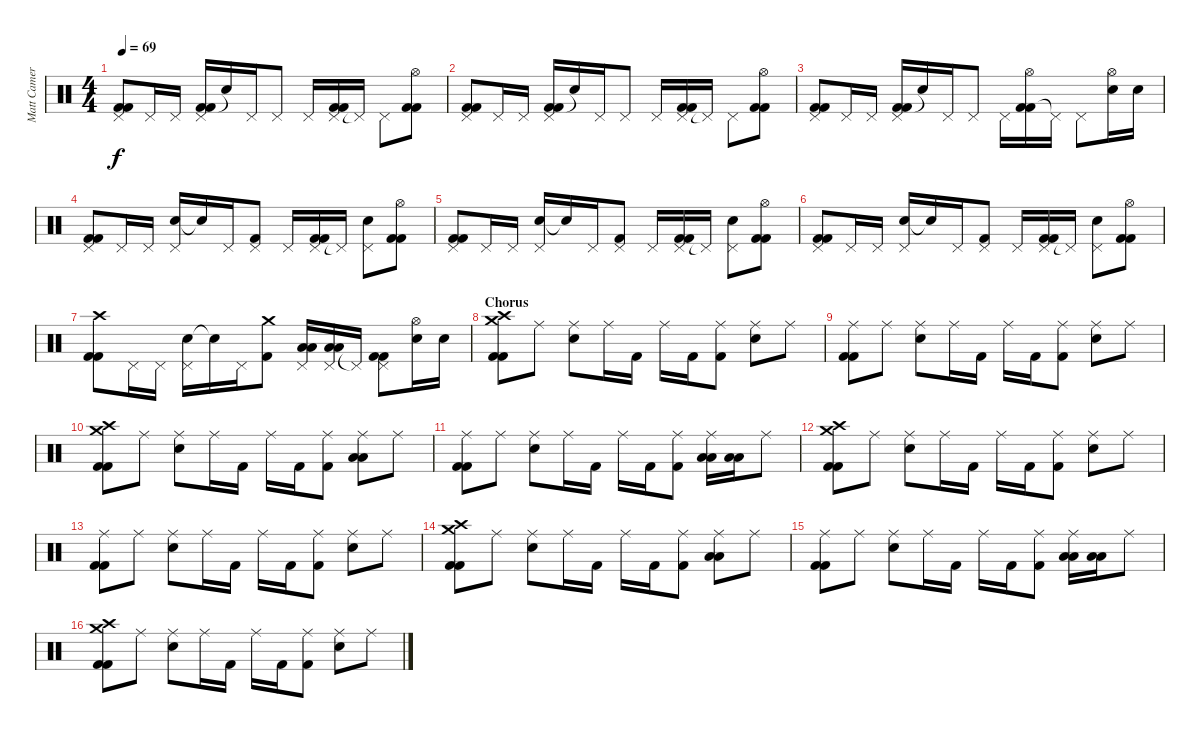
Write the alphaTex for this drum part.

\track ("Matt Cameron" "Matt Camer") {instrument percussion}
\staff {score}
\articulation defaults
\ts (4 4)
\tempo 69
\clef neutral
\ks c
("Kick (hit) 2" "Kick (hit) 2" "Pedal Hi-Hat (hit)").8{dy f} "Pedal Hi-Hat (hit)".16 "Pedal Hi-Hat (hit)".16 ("Kick (hit) 2" "Kick (hit) 2" "Pedal Hi-Hat (hit)").16 "Snare (hit)"{t}.16 "Pedal Hi-Hat (hit)".16 "Pedal Hi-Hat (hit)".8 "Pedal Hi-Hat (hit)".16 ("Kick (hit) 2" "Kick (hit) 2" "Pedal Hi-Hat (hit)").16 "Pedal Hi-Hat (hit)"{t}.16 "Pedal Hi-Hat (hit)".8 ("Kick (hit) 2" "Kick (hit) 2" "Hi-Hat (open)").8 |
("Kick (hit) 2" "Kick (hit) 2" "Pedal Hi-Hat (hit)").8 "Pedal Hi-Hat (hit)".16 "Pedal Hi-Hat (hit)".16 ("Kick (hit) 2" "Kick (hit) 2" "Pedal Hi-Hat (hit)").16 "Snare (hit)"{t}.16 "Pedal Hi-Hat (hit)".16 "Pedal Hi-Hat (hit)".8 "Pedal Hi-Hat (hit)".16 ("Kick (hit) 2" "Kick (hit) 2" "Pedal Hi-Hat (hit)").16 "Pedal Hi-Hat (hit)"{t}.16 "Pedal Hi-Hat (hit)".8 ("Kick (hit) 2" "Kick (hit) 2" "Hi-Hat (open)").8 |
("Kick (hit) 2" "Kick (hit) 2" "Pedal Hi-Hat (hit)").8 "Pedal Hi-Hat (hit)".16 "Pedal Hi-Hat (hit)".16 ("Kick (hit) 2" "Kick (hit) 2" "Pedal Hi-Hat (hit)").16 "Snare (hit)"{t}.16 "Pedal Hi-Hat (hit)".16 "Pedal Hi-Hat (hit)".8 "Pedal Hi-Hat (hit)".16 ("Kick (hit) 2" "Kick (hit) 2" "Hi-Hat (open)").16 "Pedal Hi-Hat (hit)"{t}.16 "Pedal Hi-Hat (hit)".8 ("Electric Snare (hit)" "Hi-Hat (open)").16 "Electric Snare (hit)".16 |
("Kick (hit) 2" "Kick (hit) 2" "Pedal Hi-Hat (hit)").8 "Pedal Hi-Hat (hit)".16 "Pedal Hi-Hat (hit)".16 ("Electric Snare (hit)" "Pedal Hi-Hat (hit)").16 "Snare (hit)"{t}.16 "Pedal Hi-Hat (hit)".16 ("Kick (hit) 2" "Pedal Hi-Hat (hit)").8 "Pedal Hi-Hat (hit)".16 ("Kick (hit) 2" "Kick (hit) 2" "Pedal Hi-Hat (hit)").16 "Pedal Hi-Hat (hit)"{t}.16 ("Electric Snare (hit)" "Pedal Hi-Hat (hit)").8 ("Kick (hit) 2" "Kick (hit) 2" "Hi-Hat (open)").8 |
("Kick (hit) 2" "Kick (hit) 2" "Pedal Hi-Hat (hit)").8 "Pedal Hi-Hat (hit)".16 "Pedal Hi-Hat (hit)".16 ("Electric Snare (hit)" "Pedal Hi-Hat (hit)").16 "Snare (hit)"{t}.16 "Pedal Hi-Hat (hit)".16 ("Kick (hit) 2" "Pedal Hi-Hat (hit)").8 "Pedal Hi-Hat (hit)".16 ("Kick (hit) 2" "Kick (hit) 2" "Pedal Hi-Hat (hit)").16 "Pedal Hi-Hat (hit)"{t}.16 ("Electric Snare (hit)" "Pedal Hi-Hat (hit)").8 ("Kick (hit) 2" "Kick (hit) 2" "Hi-Hat (open)").8 |
("Kick (hit) 2" "Kick (hit) 2" "Pedal Hi-Hat (hit)").8 "Pedal Hi-Hat (hit)".16 "Pedal Hi-Hat (hit)".16 ("Electric Snare (hit)" "Pedal Hi-Hat (hit)").16 "Snare (hit)"{t}.16 "Pedal Hi-Hat (hit)".16 ("Kick (hit) 2" "Pedal Hi-Hat (hit)").8 "Pedal Hi-Hat (hit)".16 ("Kick (hit) 2" "Kick (hit) 2" "Pedal Hi-Hat (hit)").16 "Pedal Hi-Hat (hit)"{t}.16 ("Electric Snare (hit)" "Pedal Hi-Hat (hit)").8 ("Kick (hit) 2" "Kick (hit) 2" "Hi-Hat (open)").8 |
("Kick (hit) 2" "Kick (hit) 2" "Crash high (hit)").8 "Pedal Hi-Hat (hit)".16 "Pedal Hi-Hat (hit)".16 ("Electric Snare (hit)" "Pedal Hi-Hat (hit)").16 "Snare (hit)"{t}.16 "Pedal Hi-Hat (hit)".16 ("Kick (hit) 2" "Crash medium (hit)").8 ("Low Tom (hit)" "Low Tom (hit)" "Pedal Hi-Hat (hit)").16 ("Low Tom (hit)" "Low Tom (hit)" "Pedal Hi-Hat (hit)").16 "Pedal Hi-Hat (hit)"{t}.16 ("Kick (hit) 2" "Kick (hit) 2" "Pedal Hi-Hat (hit)").8 ("Electric Snare (hit)" "Hi-Hat (open)").16 "Electric Snare (hit)".16 |
\section ("" "Chorus")
("Crash high (hit)" "Kick (hit) 2" "Kick (hit) 2" "Crash medium (hit)").8 "Ride (middle)".8 ("Electric Snare (hit)" "Ride (middle)").8 "Ride (middle)".16 "Kick (hit) 2".16 "Ride (middle)".16 "Kick (hit) 2".16 ("Kick (hit) 2" "Ride (middle)").8 ("Electric Snare (hit)" "Ride (middle)").8 "Ride (middle)".8 |
("Kick (hit) 2" "Kick (hit) 2" "Ride (middle)").8 "Ride (middle)".8 ("Electric Snare (hit)" "Ride (middle)").8 "Ride (middle)".16 "Kick (hit) 2".16 "Ride (middle)".16 "Kick (hit) 2".16 ("Kick (hit) 2" "Ride (middle)").8 ("Electric Snare (hit)" "Ride (middle)").8 "Ride (middle)".8 |
("Crash high (hit)" "Kick (hit) 2" "Kick (hit) 2" "Crash medium (hit)").8 "Ride (middle)".8 ("Electric Snare (hit)" "Ride (middle)").8 "Ride (middle)".16 "Kick (hit) 2".16 "Ride (middle)".16 "Kick (hit) 2".16 ("Kick (hit) 2" "Ride (middle)").8 ("Low Tom (hit)" "Low Tom (hit)" "Ride (middle)").8 "Ride (middle)".8 |
("Kick (hit) 2" "Kick (hit) 2" "Ride (middle)").8 "Ride (middle)".8 ("Electric Snare (hit)" "Ride (middle)").8 "Ride (middle)".16 "Kick (hit) 2".16 "Ride (middle)".16 "Kick (hit) 2".16 ("Kick (hit) 2" "Ride (middle)").8 ("Low Tom (hit)" "Low Tom (hit)" "Ride (middle)").16 ("Low Tom (hit)" "Low Tom (hit)").16 "Ride (middle)".8 |
("Crash high (hit)" "Kick (hit) 2" "Kick (hit) 2" "Crash medium (hit)").8 "Ride (middle)".8 ("Electric Snare (hit)" "Ride (middle)").8 "Ride (middle)".16 "Kick (hit) 2".16 "Ride (middle)".16 "Kick (hit) 2".16 ("Kick (hit) 2" "Ride (middle)").8 ("Electric Snare (hit)" "Ride (middle)").8 "Ride (middle)".8 |
("Kick (hit) 2" "Kick (hit) 2" "Ride (middle)").8 "Ride (middle)".8 ("Electric Snare (hit)" "Ride (middle)").8 "Ride (middle)".16 "Kick (hit) 2".16 "Ride (middle)".16 "Kick (hit) 2".16 ("Kick (hit) 2" "Ride (middle)").8 ("Electric Snare (hit)" "Ride (middle)").8 "Ride (middle)".8 |
("Crash high (hit)" "Kick (hit) 2" "Kick (hit) 2" "Crash medium (hit)").8 "Ride (middle)".8 ("Electric Snare (hit)" "Ride (middle)").8 "Ride (middle)".16 "Kick (hit) 2".16 "Ride (middle)".16 "Kick (hit) 2".16 ("Kick (hit) 2" "Ride (middle)").8 ("Low Tom (hit)" "Low Tom (hit)" "Ride (middle)").8 "Ride (middle)".8 |
("Kick (hit) 2" "Kick (hit) 2" "Ride (middle)").8 "Ride (middle)".8 ("Electric Snare (hit)" "Ride (middle)").8 "Ride (middle)".16 "Kick (hit) 2".16 "Ride (middle)".16 "Kick (hit) 2".16 ("Kick (hit) 2" "Ride (middle)").8 ("Low Tom (hit)" "Low Tom (hit)" "Ride (middle)").16 ("Low Tom (hit)" "Low Tom (hit)").16 "Ride (middle)".8 |
("Crash high (hit)" "Kick (hit) 2" "Kick (hit) 2" "Crash medium (hit)").8 "Ride (middle)".8 ("Electric Snare (hit)" "Ride (middle)").8 "Ride (middle)".16 "Kick (hit) 2".16 "Ride (middle)".16 "Kick (hit) 2".16 ("Kick (hit) 2" "Ride (middle)").8 ("Electric Snare (hit)" "Ride (middle)").8 "Ride (middle)".8
